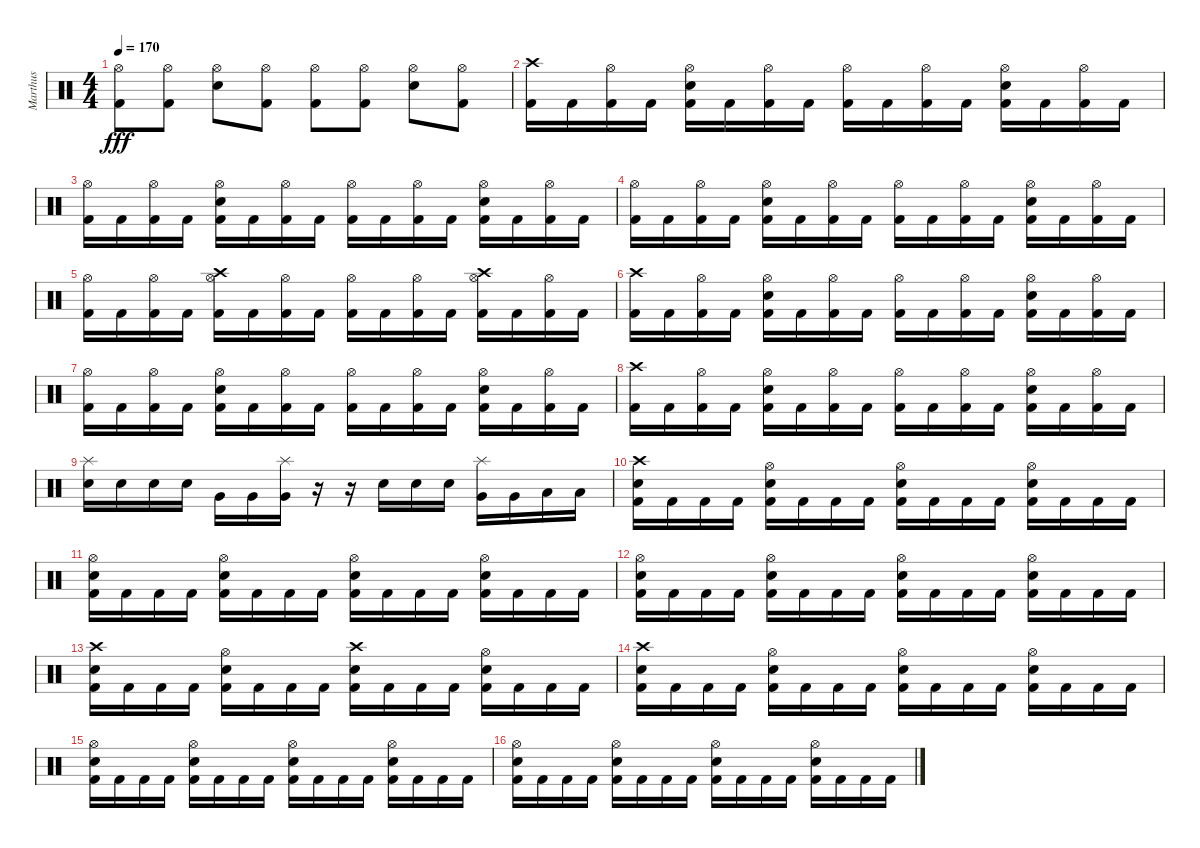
\track ("Marthus" "Marthus") {instrument percussion}
\staff {score}
\articulation defaults
\ts (4 4)
\tempo 170
\clef neutral
\ks c
("Hi-Hat (open)" "Kick (hit) 2").8{dy fff} ("Hi-Hat (open)" "Kick (hit) 2").8 ("Hi-Hat (open)" "Electric Snare (hit)").8 ("Hi-Hat (open)" "Kick (hit) 2").8 ("Hi-Hat (open)" "Kick (hit) 2").8 ("Hi-Hat (open)" "Kick (hit) 2").8 ("Hi-Hat (open)" "Electric Snare (hit)").8 ("Hi-Hat (open)" "Kick (hit) 2").8 |
("Crash high (hit)" "Kick (hit) 2").16 "Kick (hit) 2".16 ("Hi-Hat (open)" "Kick (hit) 2").16 "Kick (hit) 2".16 ("Hi-Hat (open)" "Electric Snare (hit)" "Kick (hit) 2").16 "Kick (hit) 2".16 ("Hi-Hat (open)" "Kick (hit) 2").16 "Kick (hit) 2".16 ("Hi-Hat (open)" "Kick (hit) 2").16 "Kick (hit) 2".16 ("Hi-Hat (open)" "Kick (hit) 2").16 "Kick (hit) 2".16 ("Hi-Hat (open)" "Electric Snare (hit)" "Kick (hit) 2").16 "Kick (hit) 2".16 ("Hi-Hat (open)" "Kick (hit) 2").16 "Kick (hit) 2".16 |
("Hi-Hat (open)" "Kick (hit) 2").16 "Kick (hit) 2".16 ("Hi-Hat (open)" "Kick (hit) 2").16 "Kick (hit) 2".16 ("Hi-Hat (open)" "Electric Snare (hit)" "Kick (hit) 2").16 "Kick (hit) 2".16 ("Hi-Hat (open)" "Kick (hit) 2").16 "Kick (hit) 2".16 ("Hi-Hat (open)" "Kick (hit) 2").16 "Kick (hit) 2".16 ("Hi-Hat (open)" "Kick (hit) 2").16 "Kick (hit) 2".16 ("Hi-Hat (open)" "Electric Snare (hit)" "Kick (hit) 2").16 "Kick (hit) 2".16 ("Hi-Hat (open)" "Kick (hit) 2").16 "Kick (hit) 2".16 |
("Hi-Hat (open)" "Kick (hit) 2").16 "Kick (hit) 2".16 ("Hi-Hat (open)" "Kick (hit) 2").16 "Kick (hit) 2".16 ("Hi-Hat (open)" "Electric Snare (hit)" "Kick (hit) 2").16 "Kick (hit) 2".16 ("Hi-Hat (open)" "Kick (hit) 2").16 "Kick (hit) 2".16 ("Hi-Hat (open)" "Kick (hit) 2").16 "Kick (hit) 2".16 ("Hi-Hat (open)" "Kick (hit) 2").16 "Kick (hit) 2".16 ("Hi-Hat (open)" "Electric Snare (hit)" "Kick (hit) 2").16 "Kick (hit) 2".16 ("Hi-Hat (open)" "Kick (hit) 2").16 "Kick (hit) 2".16 |
("Hi-Hat (open)" "Kick (hit) 2").16 "Kick (hit) 2".16 ("Hi-Hat (open)" "Kick (hit) 2").16 "Kick (hit) 2".16 ("Crash high (hit)" "Hi-Hat (open)" "Kick (hit) 2").16 "Kick (hit) 2".16 ("Hi-Hat (open)" "Kick (hit) 2").16 "Kick (hit) 2".16 ("Hi-Hat (open)" "Kick (hit) 2").16 "Kick (hit) 2".16 ("Hi-Hat (open)" "Kick (hit) 2").16 "Kick (hit) 2".16 ("Crash high (hit)" "Hi-Hat (open)" "Kick (hit) 2").16 "Kick (hit) 2".16 ("Hi-Hat (open)" "Kick (hit) 2").16 "Kick (hit) 2".16 |
("Crash high (hit)" "Kick (hit) 2").16 "Kick (hit) 2".16 ("Hi-Hat (open)" "Kick (hit) 2").16 "Kick (hit) 2".16 ("Hi-Hat (open)" "Electric Snare (hit)" "Kick (hit) 2").16 "Kick (hit) 2".16 ("Hi-Hat (open)" "Kick (hit) 2").16 "Kick (hit) 2".16 ("Hi-Hat (open)" "Kick (hit) 2").16 "Kick (hit) 2".16 ("Hi-Hat (open)" "Kick (hit) 2").16 "Kick (hit) 2".16 ("Hi-Hat (open)" "Electric Snare (hit)" "Kick (hit) 2").16 "Kick (hit) 2".16 ("Hi-Hat (open)" "Kick (hit) 2").16 "Kick (hit) 2".16 |
("Hi-Hat (open)" "Kick (hit) 2").16 "Kick (hit) 2".16 ("Hi-Hat (open)" "Kick (hit) 2").16 "Kick (hit) 2".16 ("Hi-Hat (open)" "Electric Snare (hit)" "Kick (hit) 2").16 "Kick (hit) 2".16 ("Hi-Hat (open)" "Kick (hit) 2").16 "Kick (hit) 2".16 ("Hi-Hat (open)" "Kick (hit) 2").16 "Kick (hit) 2".16 ("Hi-Hat (open)" "Kick (hit) 2").16 "Kick (hit) 2".16 ("Hi-Hat (open)" "Electric Snare (hit)" "Kick (hit) 2").16 "Kick (hit) 2".16 ("Hi-Hat (open)" "Kick (hit) 2").16 "Kick (hit) 2".16 |
("Crash high (hit)" "Kick (hit) 2").16 "Kick (hit) 2".16 ("Hi-Hat (open)" "Kick (hit) 2").16 "Kick (hit) 2".16 ("Hi-Hat (open)" "Electric Snare (hit)" "Kick (hit) 2").16 "Kick (hit) 2".16 ("Hi-Hat (open)" "Kick (hit) 2").16 "Kick (hit) 2".16 ("Hi-Hat (open)" "Kick (hit) 2").16 "Kick (hit) 2".16 ("Hi-Hat (open)" "Kick (hit) 2").16 "Kick (hit) 2".16 ("Hi-Hat (open)" "Electric Snare (hit)" "Kick (hit) 2").16 "Kick (hit) 2".16 ("Hi-Hat (open)" "Kick (hit) 2").16 "Kick (hit) 2".16 |
("Splash (hit)" "Electric Snare (hit)").16 "Electric Snare (hit)".16 "Electric Snare (hit)".16 "Electric Snare (hit)".16 "Very Low Tom (hit)".16 "Very Low Tom (hit)".16 ("Splash (hit)" "Very Low Tom (hit)").16 r.16 r.16 "Electric Snare (hit)".16 "Electric Snare (hit)".16 "Electric Snare (hit)".16 ("Splash (hit)" "Very Low Tom (hit)").16 "Very Low Tom (hit)".16 "Low Tom (hit)".16 "Low Tom (hit)".16 |
("Crash high (hit)" "Electric Snare (hit)" "Kick (hit) 2").16 "Kick (hit) 2".16 "Kick (hit) 2".16 "Kick (hit) 2".16 ("Hi-Hat (open)" "Electric Snare (hit)" "Kick (hit) 2").16 "Kick (hit) 2".16 "Kick (hit) 2".16 "Kick (hit) 2".16 ("Hi-Hat (open)" "Electric Snare (hit)" "Kick (hit) 2").16 "Kick (hit) 2".16 "Kick (hit) 2".16 "Kick (hit) 2".16 ("Hi-Hat (open)" "Electric Snare (hit)" "Kick (hit) 2").16 "Kick (hit) 2".16 "Kick (hit) 2".16 "Kick (hit) 2".16 |
("Hi-Hat (open)" "Electric Snare (hit)" "Kick (hit) 2").16 "Kick (hit) 2".16 "Kick (hit) 2".16 "Kick (hit) 2".16 ("Hi-Hat (open)" "Electric Snare (hit)" "Kick (hit) 2").16 "Kick (hit) 2".16 "Kick (hit) 2".16 "Kick (hit) 2".16 ("Hi-Hat (open)" "Electric Snare (hit)" "Kick (hit) 2").16 "Kick (hit) 2".16 "Kick (hit) 2".16 "Kick (hit) 2".16 ("Hi-Hat (open)" "Electric Snare (hit)" "Kick (hit) 2").16 "Kick (hit) 2".16 "Kick (hit) 2".16 "Kick (hit) 2".16 |
("Hi-Hat (open)" "Electric Snare (hit)" "Kick (hit) 2").16 "Kick (hit) 2".16 "Kick (hit) 2".16 "Kick (hit) 2".16 ("Hi-Hat (open)" "Electric Snare (hit)" "Kick (hit) 2").16 "Kick (hit) 2".16 "Kick (hit) 2".16 "Kick (hit) 2".16 ("Hi-Hat (open)" "Electric Snare (hit)" "Kick (hit) 2").16 "Kick (hit) 2".16 "Kick (hit) 2".16 "Kick (hit) 2".16 ("Hi-Hat (open)" "Electric Snare (hit)" "Kick (hit) 2").16 "Kick (hit) 2".16 "Kick (hit) 2".16 "Kick (hit) 2".16 |
("Crash high (hit)" "Electric Snare (hit)" "Kick (hit) 2").16 "Kick (hit) 2".16 "Kick (hit) 2".16 "Kick (hit) 2".16 ("Hi-Hat (open)" "Electric Snare (hit)" "Kick (hit) 2").16 "Kick (hit) 2".16 "Kick (hit) 2".16 "Kick (hit) 2".16 ("Crash high (hit)" "Electric Snare (hit)" "Kick (hit) 2").16 "Kick (hit) 2".16 "Kick (hit) 2".16 "Kick (hit) 2".16 ("Hi-Hat (open)" "Electric Snare (hit)" "Kick (hit) 2").16 "Kick (hit) 2".16 "Kick (hit) 2".16 "Kick (hit) 2".16 |
("Crash high (hit)" "Electric Snare (hit)" "Kick (hit) 2").16 "Kick (hit) 2".16 "Kick (hit) 2".16 "Kick (hit) 2".16 ("Hi-Hat (open)" "Electric Snare (hit)" "Kick (hit) 2").16 "Kick (hit) 2".16 "Kick (hit) 2".16 "Kick (hit) 2".16 ("Hi-Hat (open)" "Electric Snare (hit)" "Kick (hit) 2").16 "Kick (hit) 2".16 "Kick (hit) 2".16 "Kick (hit) 2".16 ("Hi-Hat (open)" "Electric Snare (hit)" "Kick (hit) 2").16 "Kick (hit) 2".16 "Kick (hit) 2".16 "Kick (hit) 2".16 |
("Hi-Hat (open)" "Electric Snare (hit)" "Kick (hit) 2").16 "Kick (hit) 2".16 "Kick (hit) 2".16 "Kick (hit) 2".16 ("Hi-Hat (open)" "Electric Snare (hit)" "Kick (hit) 2").16 "Kick (hit) 2".16 "Kick (hit) 2".16 "Kick (hit) 2".16 ("Hi-Hat (open)" "Electric Snare (hit)" "Kick (hit) 2").16 "Kick (hit) 2".16 "Kick (hit) 2".16 "Kick (hit) 2".16 ("Hi-Hat (open)" "Electric Snare (hit)" "Kick (hit) 2").16 "Kick (hit) 2".16 "Kick (hit) 2".16 "Kick (hit) 2".16 |
("Hi-Hat (open)" "Electric Snare (hit)" "Kick (hit) 2").16 "Kick (hit) 2".16 "Kick (hit) 2".16 "Kick (hit) 2".16 ("Hi-Hat (open)" "Electric Snare (hit)" "Kick (hit) 2").16 "Kick (hit) 2".16 "Kick (hit) 2".16 "Kick (hit) 2".16 ("Hi-Hat (open)" "Electric Snare (hit)" "Kick (hit) 2").16 "Kick (hit) 2".16 "Kick (hit) 2".16 "Kick (hit) 2".16 ("Hi-Hat (open)" "Electric Snare (hit)" "Kick (hit) 2").16 "Kick (hit) 2".16 "Kick (hit) 2".16 "Kick (hit) 2".16
